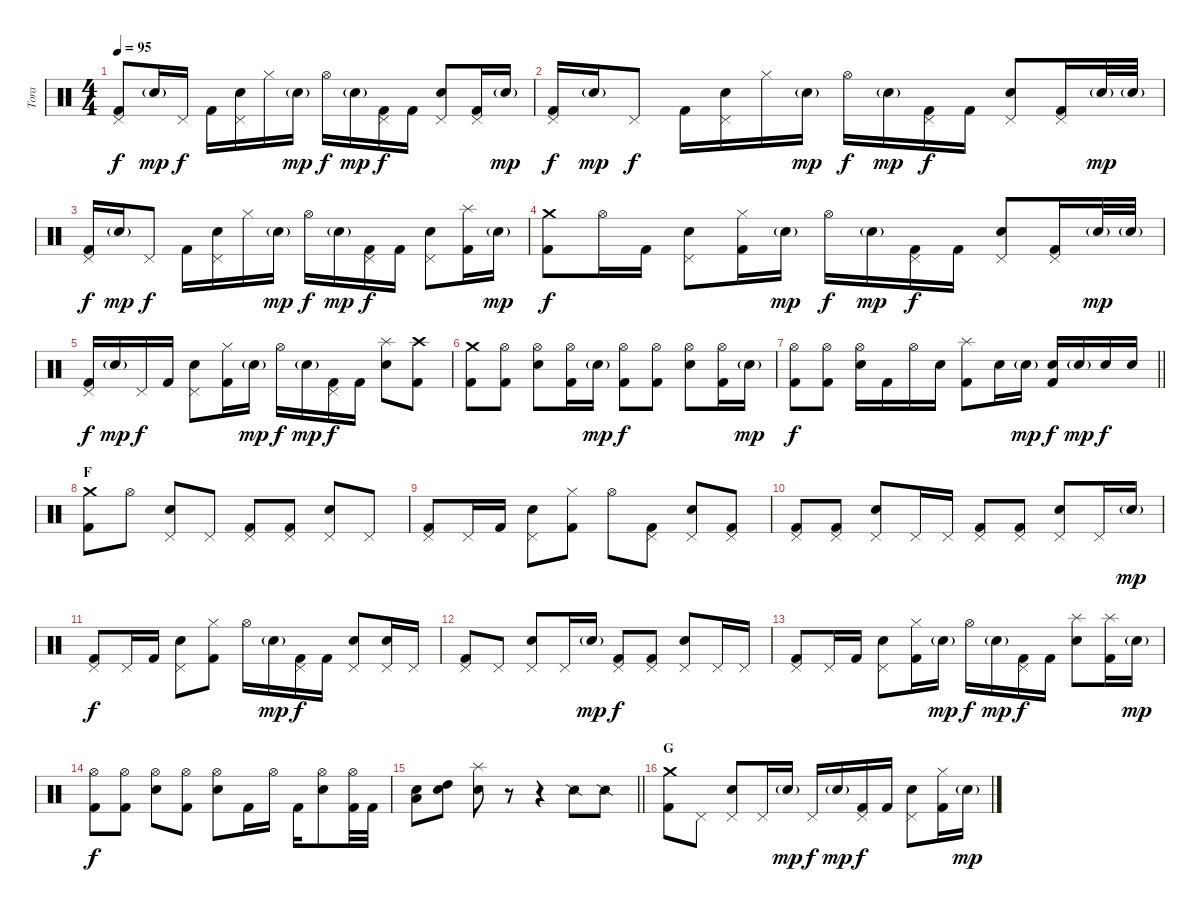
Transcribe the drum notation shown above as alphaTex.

\track ("Tora" "Tora") {instrument percussion}
\staff {score}
\articulation defaults
\ts (4 4)
\tempo 95
\clef neutral
\ks c
("Pedal Hi-Hat (hit)" "Kick (hit) 2").8{dy f} "Electric Snare (hit)"{g}.16{dy mp} "Pedal Hi-Hat (hit)".16{dy f} "Kick (hit) 2".16 ("Pedal Hi-Hat (hit)" "Electric Snare (hit)").16 "Hi-Hat (closed)".16 "Electric Snare (hit)"{g}.16{dy mp} "Hi-Hat (open)".16{dy f} "Electric Snare (hit)"{g}.16{dy mp} ("Pedal Hi-Hat (hit)" "Kick (hit) 2").16{dy f} "Kick (hit) 2".16 ("Pedal Hi-Hat (hit)" "Electric Snare (hit)").8 ("Pedal Hi-Hat (hit)" "Kick (hit) 2").16 "Electric Snare (hit)"{g}.16{dy mp} |
("Pedal Hi-Hat (hit)" "Kick (hit) 2").16{dy f} "Electric Snare (hit)"{g}.16{dy mp} "Pedal Hi-Hat (hit)".8{dy f} "Kick (hit) 2".16 ("Pedal Hi-Hat (hit)" "Electric Snare (hit)").16 "Hi-Hat (closed)".16 "Electric Snare (hit)"{g}.16{dy mp} "Hi-Hat (open)".16{dy f} "Electric Snare (hit)"{g}.16{dy mp} ("Pedal Hi-Hat (hit)" "Kick (hit) 2").16{dy f} "Kick (hit) 2".16 ("Pedal Hi-Hat (hit)" "Electric Snare (hit)").8 ("Pedal Hi-Hat (hit)" "Kick (hit) 2").16 "Electric Snare (hit)"{g}.32{dy mp} "Electric Snare (hit)"{g}.32 |
("Pedal Hi-Hat (hit)" "Kick (hit) 2").16{dy f} "Electric Snare (hit)"{g}.16{dy mp} "Pedal Hi-Hat (hit)".8{dy f} "Kick (hit) 2".16 ("Pedal Hi-Hat (hit)" "Electric Snare (hit)").16 "Hi-Hat (closed)".16 "Electric Snare (hit)"{g}.16{dy mp} "Hi-Hat (open)".16{dy f} "Electric Snare (hit)"{g}.16{dy mp} ("Pedal Hi-Hat (hit)" "Kick (hit) 2").16{dy f} "Kick (hit) 2".16 ("Pedal Hi-Hat (hit)" "Electric Snare (hit)").8 ("Splash (hit)" "Kick (hit) 2").16 "Electric Snare (hit)"{g}.16{dy mp} |
("Crash medium (hit)" "Kick (hit) 2").8{dy f} "Hi-Hat (open)".16 "Kick (hit) 2".16 ("Pedal Hi-Hat (hit)" "Electric Snare (hit)").8 ("Hi-Hat (closed)" "Kick (hit) 2").16 "Electric Snare (hit)"{g}.16{dy mp} "Hi-Hat (open)".16{dy f} "Electric Snare (hit)"{g}.16{dy mp} ("Pedal Hi-Hat (hit)" "Kick (hit) 2").16{dy f} "Kick (hit) 2".16 ("Pedal Hi-Hat (hit)" "Electric Snare (hit)").8 ("Pedal Hi-Hat (hit)" "Kick (hit) 2").16 "Electric Snare (hit)"{g}.32{dy mp} "Electric Snare (hit)"{g}.32 |
("Pedal Hi-Hat (hit)" "Kick (hit) 2").16{dy f} "Electric Snare (hit)"{g}.16{dy mp} "Pedal Hi-Hat (hit)".16{dy f} "Kick (hit) 2".16 ("Pedal Hi-Hat (hit)" "Electric Snare (hit)").8 ("Hi-Hat (closed)" "Kick (hit) 2").16 "Electric Snare (hit)"{g}.16{dy mp} "Hi-Hat (open)".16{dy f} "Electric Snare (hit)"{g}.16{dy mp} ("Pedal Hi-Hat (hit)" "Kick (hit) 2").16{dy f} "Kick (hit) 2".16 ("Splash (hit)" "Electric Snare (hit)").8 ("Crash high (hit)" "Kick (hit) 2").8 |
("Crash medium (hit)" "Kick (hit) 2").8 ("Hi-Hat (open)" "Kick (hit) 2").8 ("Hi-Hat (open)" "Electric Snare (hit)").8 ("Hi-Hat (open)" "Kick (hit) 2").16 "Electric Snare (hit)"{g}.16{dy mp} ("Hi-Hat (open)" "Kick (hit) 2").8{dy f} ("Hi-Hat (open)" "Kick (hit) 2").8 ("Hi-Hat (open)" "Electric Snare (hit)").8 ("Hi-Hat (open)" "Kick (hit) 2").16 "Electric Snare (hit)"{g}.16{dy mp} |
\barLineRight lightlight
("Hi-Hat (open)" "Kick (hit) 2").8{dy f} ("Hi-Hat (open)" "Kick (hit) 2").8 ("Hi-Hat (open)" "Electric Snare (hit)").16 "Kick (hit) 2".16 "Hi-Hat (open)".16 "Electric Snare (hit)".16 ("Splash (hit)" "Kick (hit) 2").8 "Electric Snare (hit)".16 "Electric Snare (hit)"{g}.16{dy mp} ("Electric Snare (hit)" "Kick (hit) 2").16{dy f} "Electric Snare (hit)"{g}.16{dy mp} "Electric Snare (hit)".16{dy f} "Electric Snare (hit)".16 |
\section ("" "F")
("Crash medium (hit)" "Kick (hit) 2").8 "Hi-Hat (open)".8 ("Pedal Hi-Hat (hit)" "Electric Snare (hit)").8 "Pedal Hi-Hat (hit)".8 ("Pedal Hi-Hat (hit)" "Kick (hit) 2").8 ("Pedal Hi-Hat (hit)" "Kick (hit) 2").8 ("Pedal Hi-Hat (hit)" "Electric Snare (hit)").8 "Pedal Hi-Hat (hit)".8 |
("Pedal Hi-Hat (hit)" "Kick (hit) 2").8 "Pedal Hi-Hat (hit)".16 "Kick (hit) 2".16 ("Pedal Hi-Hat (hit)" "Electric Snare (hit)").8 ("Hi-Hat (closed)" "Kick (hit) 2").8 "Hi-Hat (open)".8 ("Pedal Hi-Hat (hit)" "Kick (hit) 2").8 ("Pedal Hi-Hat (hit)" "Electric Snare (hit)").8 ("Pedal Hi-Hat (hit)" "Kick (hit) 2").8 |
("Pedal Hi-Hat (hit)" "Kick (hit) 2").8 ("Pedal Hi-Hat (hit)" "Kick (hit) 2").8 ("Pedal Hi-Hat (hit)" "Electric Snare (hit)").8 "Pedal Hi-Hat (hit)".16 "Pedal Hi-Hat (hit)".16 ("Pedal Hi-Hat (hit)" "Kick (hit) 2").8 ("Pedal Hi-Hat (hit)" "Kick (hit) 2").8 ("Pedal Hi-Hat (hit)" "Electric Snare (hit)").8 "Pedal Hi-Hat (hit)".16 "Electric Snare (hit)"{g}.16{dy mp} |
("Pedal Hi-Hat (hit)" "Kick (hit) 2").8{dy f} "Pedal Hi-Hat (hit)".16 "Kick (hit) 2".16 ("Pedal Hi-Hat (hit)" "Electric Snare (hit)").8 ("Hi-Hat (closed)" "Kick (hit) 2").8 "Hi-Hat (open)".16 "Electric Snare (hit)"{g}.16{dy mp} ("Pedal Hi-Hat (hit)" "Kick (hit) 2").16{dy f} "Kick (hit) 2".16 ("Pedal Hi-Hat (hit)" "Electric Snare (hit)").8 ("Pedal Hi-Hat (hit)" "Electric Snare (hit)").16 "Pedal Hi-Hat (hit)".16 |
("Pedal Hi-Hat (hit)" "Kick (hit) 2").8 "Pedal Hi-Hat (hit)".8 ("Pedal Hi-Hat (hit)" "Electric Snare (hit)").8 "Pedal Hi-Hat (hit)".16 "Electric Snare (hit)"{g}.16{dy mp} ("Pedal Hi-Hat (hit)" "Kick (hit) 2").8{dy f} ("Pedal Hi-Hat (hit)" "Kick (hit) 2").8 ("Pedal Hi-Hat (hit)" "Electric Snare (hit)").8 "Pedal Hi-Hat (hit)".16 "Pedal Hi-Hat (hit)".16 |
("Pedal Hi-Hat (hit)" "Kick (hit) 2").8 "Pedal Hi-Hat (hit)".16 "Kick (hit) 2".16 ("Pedal Hi-Hat (hit)" "Electric Snare (hit)").8 ("Hi-Hat (closed)" "Kick (hit) 2").16 "Electric Snare (hit)"{g}.16{dy mp} "Hi-Hat (open)".16{dy f} "Electric Snare (hit)"{g}.16{dy mp} ("Pedal Hi-Hat (hit)" "Kick (hit) 2").16{dy f} "Kick (hit) 2".16 ("Splash (hit)" "Electric Snare (hit)").8 ("Splash (hit)" "Kick (hit) 2").16 "Electric Snare (hit)"{g}.16{dy mp} |
("Hi-Hat (open)" "Kick (hit) 2").8{dy f} ("Hi-Hat (open)" "Kick (hit) 2").8 ("Hi-Hat (open)" "Electric Snare (hit)").8 ("Hi-Hat (open)" "Kick (hit) 2").8 ("Hi-Hat (open)" "Electric Snare (hit)").8 "Kick (hit) 2".16 "Hi-Hat (open)".16 "Kick (hit) 2".16 ("Hi-Hat (open)" "Electric Snare (hit)").8 ("Hi-Hat (open)" "Kick (hit) 2").32 "Kick (hit) 2".32 |
\barLineRight lightlight
("Electric Snare (hit)" "Low Tom (hit)").8 ("High Tom (hit)" "Electric Snare (hit)").8 ("Splash (hit)" "Electric Snare (hit)").8 r.8 r.4 "Snare (side stick) 2".8 "Snare (side stick) 2".8 |
\section ("" "G")
("Crash medium (hit)" "Kick (hit) 2").8 "Pedal Hi-Hat (hit)".8 ("Pedal Hi-Hat (hit)" "Electric Snare (hit)").8 "Pedal Hi-Hat (hit)".16 "Electric Snare (hit)"{g}.16{dy mp} "Pedal Hi-Hat (hit)".16{dy f} "Electric Snare (hit)"{g}.16{dy mp} ("Pedal Hi-Hat (hit)" "Kick (hit) 2").16{dy f} "Kick (hit) 2".16 ("Pedal Hi-Hat (hit)" "Electric Snare (hit)").8 ("Hi-Hat (closed)" "Kick (hit) 2").16 "Electric Snare (hit)"{g}.16{dy mp}
